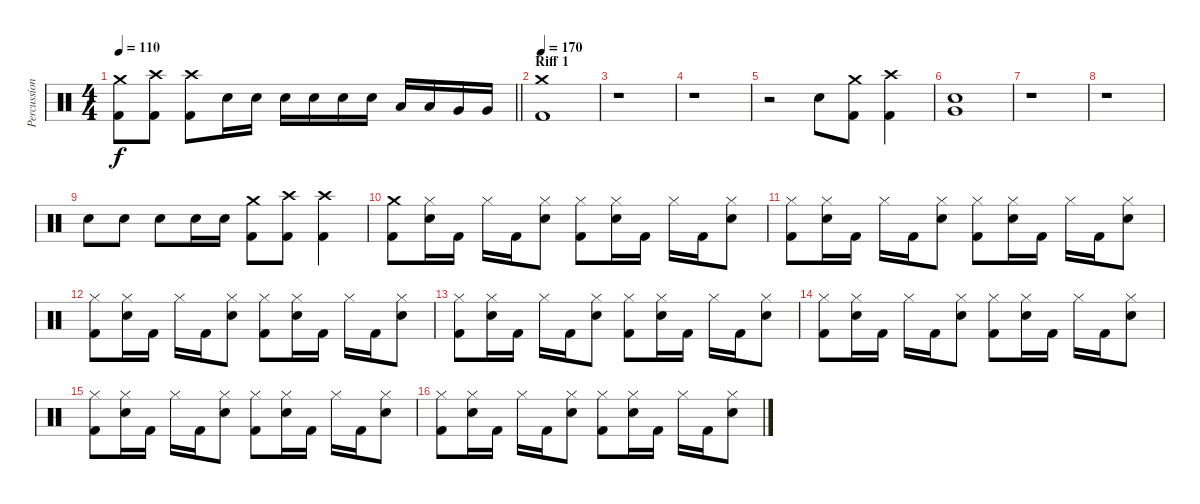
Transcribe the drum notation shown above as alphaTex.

\track ("Percussion" "Percussion") {instrument percussion}
\staff {score}
\articulation defaults
\ts (4 4)
\tempo 110
\clef neutral
\barLineRight lightlight
\ks c
("Crash medium (hit)" "Kick (hit) 2").8{dy f} ("Crash high (hit)" "Kick (hit) 2").8 ("Crash high (hit)" "Kick (hit) 2").8 "Electric Snare (hit)".16 "Electric Snare (hit)".16 "Electric Snare (hit)".16 "Electric Snare (hit)".16 "Electric Snare (hit)".16 "Electric Snare (hit)".16 "Low Tom (hit)".16 "Low Tom (hit)".16 "Very Low Tom (hit)".16 "Very Low Tom (hit)".16 |
\section ("" "Riff 1")
\tempo 170
("Crash medium (hit)" "Kick (hit) 2").1 |
r.1 |
r.1 |
r.2 "Electric Snare (hit)".8 ("Crash medium (hit)" "Kick (hit) 2").8 ("Crash high (hit)" "Kick (hit) 2").4 |
("Electric Snare (hit)" "Very Low Tom (hit)").1 |
r.1 |
r.1 |
"Electric Snare (hit)".8 "Electric Snare (hit)".8 "Electric Snare (hit)".8 "Electric Snare (hit)".16 "Electric Snare (hit)".16 ("Crash medium (hit)" "Kick (hit) 2").8 ("Crash high (hit)" "Kick (hit) 2").8 ("Crash high (hit)" "Kick (hit) 2").4 |
("Crash medium (hit)" "Kick (hit) 2").8 ("Hi-Hat (closed)" "Electric Snare (hit)").16 "Kick (hit) 2".16 "Hi-Hat (closed)".16 "Kick (hit) 2".16 ("Hi-Hat (closed)" "Electric Snare (hit)").8 ("Hi-Hat (closed)" "Kick (hit) 2").8 ("Hi-Hat (closed)" "Electric Snare (hit)").16 "Kick (hit) 2".16 "Hi-Hat (closed)".16 "Kick (hit) 2".16 ("Hi-Hat (closed)" "Electric Snare (hit)").8 |
("Hi-Hat (closed)" "Kick (hit) 2").8 ("Hi-Hat (closed)" "Electric Snare (hit)").16 "Kick (hit) 2".16 "Hi-Hat (closed)".16 "Kick (hit) 2".16 ("Hi-Hat (closed)" "Electric Snare (hit)").8 ("Hi-Hat (closed)" "Kick (hit) 2").8 ("Hi-Hat (closed)" "Electric Snare (hit)").16 "Kick (hit) 2".16 "Hi-Hat (closed)".16 "Kick (hit) 2".16 ("Hi-Hat (closed)" "Electric Snare (hit)").8 |
("Hi-Hat (closed)" "Kick (hit) 2").8 ("Hi-Hat (closed)" "Electric Snare (hit)").16 "Kick (hit) 2".16 "Hi-Hat (closed)".16 "Kick (hit) 2".16 ("Hi-Hat (closed)" "Electric Snare (hit)").8 ("Hi-Hat (closed)" "Kick (hit) 2").8 ("Hi-Hat (closed)" "Electric Snare (hit)").16 "Kick (hit) 2".16 "Hi-Hat (closed)".16 "Kick (hit) 2".16 ("Hi-Hat (closed)" "Electric Snare (hit)").8 |
("Hi-Hat (closed)" "Kick (hit) 2").8 ("Hi-Hat (closed)" "Electric Snare (hit)").16 "Kick (hit) 2".16 "Hi-Hat (closed)".16 "Kick (hit) 2".16 ("Hi-Hat (closed)" "Electric Snare (hit)").8 ("Hi-Hat (closed)" "Kick (hit) 2").8 ("Hi-Hat (closed)" "Electric Snare (hit)").16 "Kick (hit) 2".16 "Hi-Hat (closed)".16 "Kick (hit) 2".16 ("Hi-Hat (closed)" "Electric Snare (hit)").8 |
("Hi-Hat (closed)" "Kick (hit) 2").8 ("Hi-Hat (closed)" "Electric Snare (hit)").16 "Kick (hit) 2".16 "Hi-Hat (closed)".16 "Kick (hit) 2".16 ("Hi-Hat (closed)" "Electric Snare (hit)").8 ("Hi-Hat (closed)" "Kick (hit) 2").8 ("Hi-Hat (closed)" "Electric Snare (hit)").16 "Kick (hit) 2".16 "Hi-Hat (closed)".16 "Kick (hit) 2".16 ("Hi-Hat (closed)" "Electric Snare (hit)").8 |
("Hi-Hat (closed)" "Kick (hit) 2").8 ("Hi-Hat (closed)" "Electric Snare (hit)").16 "Kick (hit) 2".16 "Hi-Hat (closed)".16 "Kick (hit) 2".16 ("Hi-Hat (closed)" "Electric Snare (hit)").8 ("Hi-Hat (closed)" "Kick (hit) 2").8 ("Hi-Hat (closed)" "Electric Snare (hit)").16 "Kick (hit) 2".16 "Hi-Hat (closed)".16 "Kick (hit) 2".16 ("Hi-Hat (closed)" "Electric Snare (hit)").8 |
("Hi-Hat (closed)" "Kick (hit) 2").8 ("Hi-Hat (closed)" "Electric Snare (hit)").16 "Kick (hit) 2".16 "Hi-Hat (closed)".16 "Kick (hit) 2".16 ("Hi-Hat (closed)" "Electric Snare (hit)").8 ("Hi-Hat (closed)" "Kick (hit) 2").8 ("Hi-Hat (closed)" "Electric Snare (hit)").16 "Kick (hit) 2".16 "Hi-Hat (closed)".16 "Kick (hit) 2".16 ("Hi-Hat (closed)" "Electric Snare (hit)").8
